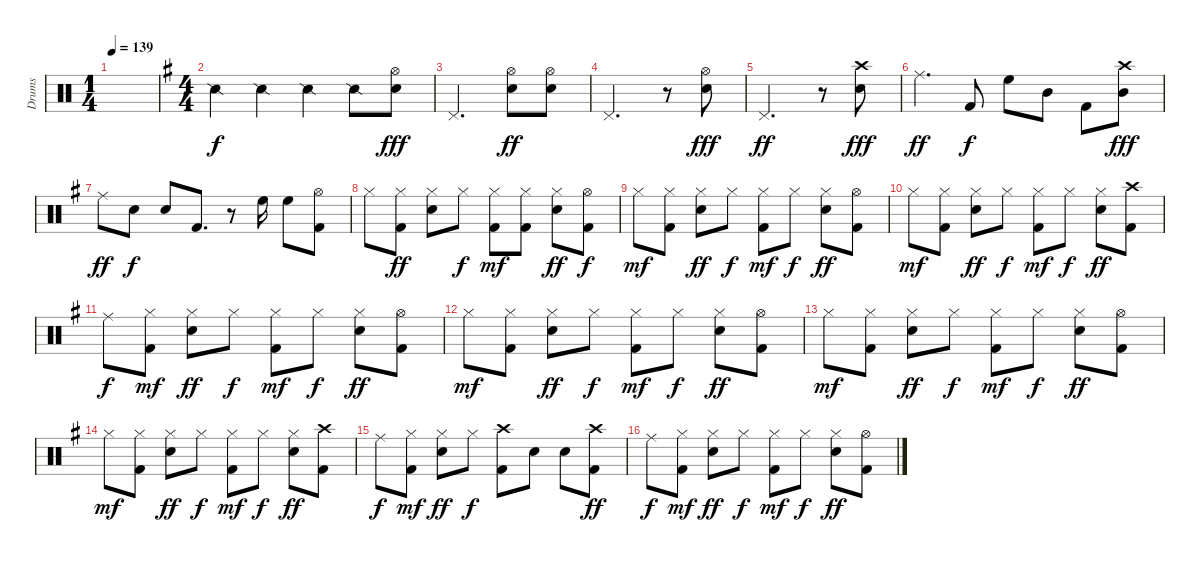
\track ("Drums" "Drums") {instrument percussion}
\staff {score}
\articulation defaults
\ts (1 4)
\tempo 139
\clef neutral
\ks c
|
\ts (4 4)
\ks g "Snare (side stick) 2".4 "Snare (side stick) 2".4 "Snare (side stick) 2".4 "Snare (side stick) 2".8
("Hi-Hat (open)" "Snare (hit) 2").8{dy fff} |
"Pedal Hi-Hat (hit)".2{d} ("Hi-Hat (open)" "Snare (hit) 2").8{dy ff} ("Hi-Hat (open)" "Snare (hit) 2").8 |
"Pedal Hi-Hat (hit)".2{d} r.8 ("Hi-Hat (open)" "Snare (hit) 2").8{dy fff} |
"Pedal Hi-Hat (hit)".2{d dy ff} r.8 ("Crash high (hit)" "Snare (hit) 2").8{dy fff} |
"Ride (middle)".4{d dy ff} "Kick (hit) 2".8{dy f} "High Floor Tom (hit)".8 "Mid Tom (hit)".8 "Kick (hit) 2".8 ("Crash high (hit)" "Mid Tom (hit)").8{dy fff} |
"Ride (middle)".8{dy ff} "Snare (hit) 2".8{dy f} "Snare (hit) 2".8 "Kick (hit) 2".8{d} r.8 "High Floor Tom (hit)".16 "High Floor Tom (hit)".8 ("Hi-Hat (open)" "Kick (hit) 2").8 |
"Hi-Hat (closed)".8 ("Hi-Hat (closed)" "Kick (hit) 2").8{dy ff} ("Hi-Hat (closed)" "Snare (hit) 2").8 "Hi-Hat (closed)".8{dy f} ("Hi-Hat (closed)" "Kick (hit) 2").8{dy mf} ("Hi-Hat (closed)" "Kick (hit) 2").8 ("Hi-Hat (closed)" "Snare (hit) 2").8{dy ff} ("Hi-Hat (open)" "Kick (hit) 2").8{dy f} |
"Hi-Hat (closed)".8{dy mf} ("Hi-Hat (closed)" "Kick (hit) 2").8 ("Hi-Hat (closed)" "Snare (hit) 2").8{dy ff} "Hi-Hat (closed)".8{dy f} ("Hi-Hat (closed)" "Kick (hit) 2").8{dy mf} "Hi-Hat (closed)".8{dy f} ("Hi-Hat (closed)" "Snare (hit) 2").8{dy ff} ("Hi-Hat (open)" "Kick (hit) 2").8 |
"Hi-Hat (closed)".8{dy mf} ("Hi-Hat (closed)" "Kick (hit) 2").8 ("Hi-Hat (closed)" "Snare (hit) 2").8{dy ff} "Hi-Hat (closed)".8{dy f} ("Hi-Hat (closed)" "Kick (hit) 2").8{dy mf} "Hi-Hat (closed)".8{dy f} ("Hi-Hat (closed)" "Snare (hit) 2").8{dy ff} ("Crash high (hit)" "Kick (hit) 2").8 |
"Ride (middle)".8{dy f} ("Hi-Hat (closed)" "Kick (hit) 2").8{dy mf} ("Hi-Hat (closed)" "Snare (hit) 2").8{dy ff} "Hi-Hat (closed)".8{dy f} ("Hi-Hat (closed)" "Kick (hit) 2").8{dy mf} "Hi-Hat (closed)".8{dy f} ("Hi-Hat (closed)" "Snare (hit) 2").8{dy ff} ("Hi-Hat (open)" "Kick (hit) 2").8 |
"Hi-Hat (closed)".8{dy mf} ("Hi-Hat (closed)" "Kick (hit) 2").8 ("Hi-Hat (closed)" "Snare (hit) 2").8{dy ff} "Hi-Hat (closed)".8{dy f} ("Hi-Hat (closed)" "Kick (hit) 2").8{dy mf} "Hi-Hat (closed)".8{dy f} ("Hi-Hat (closed)" "Snare (hit) 2").8{dy ff} ("Hi-Hat (open)" "Kick (hit) 2").8 |
"Hi-Hat (closed)".8{dy mf} ("Hi-Hat (closed)" "Kick (hit) 2").8 ("Hi-Hat (closed)" "Snare (hit) 2").8{dy ff} "Hi-Hat (closed)".8{dy f} ("Hi-Hat (closed)" "Kick (hit) 2").8{dy mf} "Hi-Hat (closed)".8{dy f} ("Hi-Hat (closed)" "Snare (hit) 2").8{dy ff} ("Hi-Hat (open)" "Kick (hit) 2").8 |
"Hi-Hat (closed)".8{dy mf} ("Hi-Hat (closed)" "Kick (hit) 2").8 ("Hi-Hat (closed)" "Snare (hit) 2").8{dy ff} "Hi-Hat (closed)".8{dy f} ("Hi-Hat (closed)" "Kick (hit) 2").8{dy mf} "Hi-Hat (closed)".8{dy f} ("Hi-Hat (closed)" "Snare (hit) 2").8{dy ff} ("Crash high (hit)" "Kick (hit) 2").8 |
"Ride (middle)".8{dy f} ("Hi-Hat (closed)" "Kick (hit) 2").8{dy mf} ("Hi-Hat (closed)" "Snare (hit) 2").8{dy ff} "Hi-Hat (closed)".8{dy f} ("Crash high (hit)" "Kick (hit) 2").8 "Snare (hit) 2".8 "Snare (hit) 2".8 ("Crash high (hit)" "Kick (hit) 2").8{dy ff} |
"Ride (middle)".8{dy f} ("Hi-Hat (closed)" "Kick (hit) 2").8{dy mf} ("Hi-Hat (closed)" "Snare (hit) 2").8{dy ff} "Hi-Hat (closed)".8{dy f} ("Hi-Hat (closed)" "Kick (hit) 2").8{dy mf} "Hi-Hat (closed)".8{dy f} ("Hi-Hat (closed)" "Snare (hit) 2").8{dy ff} ("Hi-Hat (open)" "Kick (hit) 2").8
